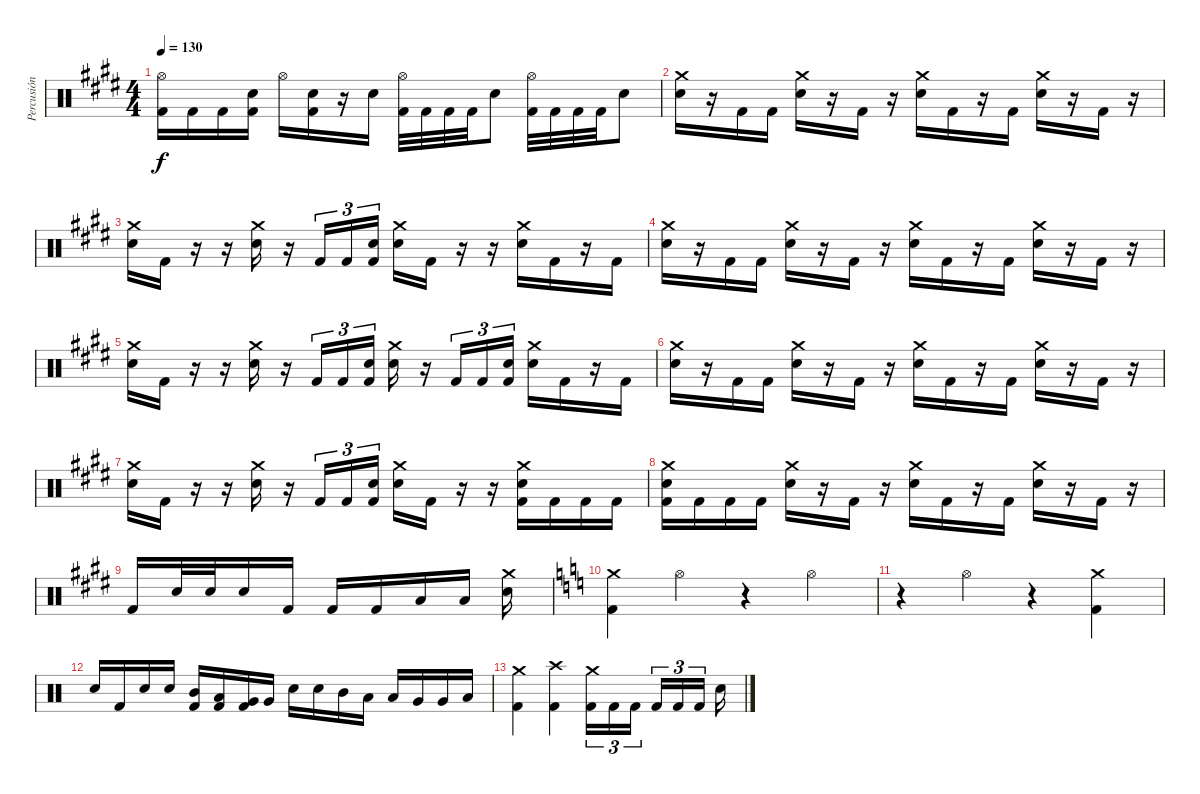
\track ("Percusión" "Percusión") {instrument percussion}
\staff {score}
\articulation defaults
\ts (4 4)
\tempo 130
\clef neutral
\ks c#minor
("Hi-Hat (open)" "Kick (hit) 2").16{dy f} "Kick (hit) 2".16 "Kick (hit) 2".16 ("Electric Snare (hit)" "Kick (hit) 2").16 "Hi-Hat (open)".16 ("Electric Snare (hit)" "Kick (hit) 2").16 r.16 "Electric Snare (hit)".16 ("Hi-Hat (open)" "Kick (hit) 2").32 "Kick (hit) 2".32 "Kick (hit) 2".32 "Kick (hit) 2".32 "Electric Snare (hit)".8 ("Hi-Hat (open)" "Kick (hit) 2").32 "Kick (hit) 2".32 "Kick (hit) 2".32 "Kick (hit) 2".32 "Electric Snare (hit)".8 |
("Crash medium (hit)" "Electric Snare (hit)").16 r.16 "Kick (hit) 2".16 "Kick (hit) 2".16 ("Crash medium (hit)" "Electric Snare (hit)").16 r.16 "Kick (hit) 2".16 r.16 ("Crash medium (hit)" "Electric Snare (hit)").16 "Kick (hit) 2".16 r.16 "Kick (hit) 2".16 ("Crash medium (hit)" "Electric Snare (hit)").16 r.16 "Kick (hit) 2".16 r.16 |
("Crash medium (hit)" "Electric Snare (hit)").16 "Kick (hit) 2".16 r.16 r.16 ("Crash medium (hit)" "Electric Snare (hit)").16 r.16 "Kick (hit) 2".16{tu (3 2)} "Kick (hit) 2".16{tu (3 2)} ("Snare (hit)" "Kick (hit) 2").16{tu (3 2)} ("Crash medium (hit)" "Electric Snare (hit)").16 "Kick (hit) 2".16 r.16 r.16 ("Crash medium (hit)" "Electric Snare (hit)").16 "Kick (hit) 2".16 r.16 "Kick (hit) 2".16 |
("Crash medium (hit)" "Electric Snare (hit)").16 r.16 "Kick (hit) 2".16 "Kick (hit) 2".16 ("Crash medium (hit)" "Electric Snare (hit)").16 r.16 "Kick (hit) 2".16 r.16 ("Crash medium (hit)" "Electric Snare (hit)").16 "Kick (hit) 2".16 r.16 "Kick (hit) 2".16 ("Crash medium (hit)" "Electric Snare (hit)").16 r.16 "Kick (hit) 2".16 r.16 |
("Crash medium (hit)" "Electric Snare (hit)").16 "Kick (hit) 2".16 r.16 r.16 ("Crash medium (hit)" "Electric Snare (hit)").16 r.16 "Kick (hit) 2".16{tu (3 2)} "Kick (hit) 2".16{tu (3 2)} ("Snare (hit)" "Kick (hit) 2").16{tu (3 2)} ("Crash medium (hit)" "Electric Snare (hit)").16 r.16 "Kick (hit) 2".16{tu (3 2)} "Kick (hit) 2".16{tu (3 2)} ("Snare (hit)" "Kick (hit) 2").16{tu (3 2)} ("Crash medium (hit)" "Electric Snare (hit)").16 "Kick (hit) 2".16 r.16 "Kick (hit) 2".16 |
("Crash medium (hit)" "Electric Snare (hit)").16 r.16 "Kick (hit) 2".16 "Kick (hit) 2".16 ("Crash medium (hit)" "Electric Snare (hit)").16 r.16 "Kick (hit) 2".16 r.16 ("Crash medium (hit)" "Electric Snare (hit)").16 "Kick (hit) 2".16 r.16 "Kick (hit) 2".16 ("Crash medium (hit)" "Electric Snare (hit)").16 r.16 "Kick (hit) 2".16 r.16 |
("Crash medium (hit)" "Electric Snare (hit)").16 "Kick (hit) 2".16 r.16 r.16 ("Crash medium (hit)" "Electric Snare (hit)").16 r.16 "Kick (hit) 2".16{tu (3 2)} "Kick (hit) 2".16{tu (3 2)} ("Snare (hit)" "Kick (hit) 2").16{tu (3 2)} ("Crash medium (hit)" "Electric Snare (hit)").16 "Kick (hit) 2".16 r.16 r.16 ("Crash medium (hit)" "Electric Snare (hit)" "Kick (hit) 2").16 "Kick (hit) 2".16 "Kick (hit) 2".16 "Kick (hit) 2".16 |
("Crash medium (hit)" "Electric Snare (hit)" "Kick (hit) 2").16 "Kick (hit) 2".16 "Kick (hit) 2".16 "Kick (hit) 2".16 ("Crash medium (hit)" "Electric Snare (hit)").16 r.16 "Kick (hit) 2".16 r.16 ("Crash medium (hit)" "Electric Snare (hit)").16 "Kick (hit) 2".16 r.16 "Kick (hit) 2".16 ("Crash medium (hit)" "Electric Snare (hit)").16 r.16 "Kick (hit) 2".16 r.16 |
"Kick (hit) 2".16 "Electric Snare (hit)".32 "Electric Snare (hit)".32 "Electric Snare (hit)".16 "Kick (hit) 2".16 "Kick (hit) 2".16 "Kick (hit) 2".16 "Low Tom (hit)".16 "Low Tom (hit)".16 ("Crash medium (hit)" "Electric Snare (hit)").16 |
\ks c
("Kick (hit) 2" "Crash medium (hit)").4 "Hi-Hat (open)".4 r.4 "Hi-Hat (open)".4 |
r.4 "Hi-Hat (open)".4 r.4 ("Crash medium (hit)" "Kick (hit) 2").4 |
"Electric Snare (hit)".16 "Kick (hit) 2".16 "Electric Snare (hit)".16 "Electric Snare (hit)".16 ("Mid Tom (hit)" "Kick (hit) 2").16 ("Low Tom (hit)" "Kick (hit) 2").16 ("Very Low Tom (hit)" "Kick (hit) 2").16 "Very Low Tom (hit)".16 "Electric Snare (hit)".16 "Electric Snare (hit)".16 "Mid Tom (hit)".16 "Low Tom (hit)".16 "Low Tom (hit)".16 "Very Low Tom (hit)".16 "Very Low Tom (hit)".16 "Low Floor Tom (hit)".16 |
("Crash medium (hit)" "Kick (hit) 2").4 ("Crash high (hit)" "Kick (hit) 2").4 ("Crash medium (hit)" "Kick (hit) 2").16{tu (3 2)} "Kick (hit) 2".16{tu (3 2)} "Kick (hit) 2".16{tu (3 2)} "Kick (hit) 2".16{tu (3 2)} "Kick (hit) 2".16{tu (3 2)} "Kick (hit) 2".16{tu (3 2)} "Electric Snare (hit)".16
